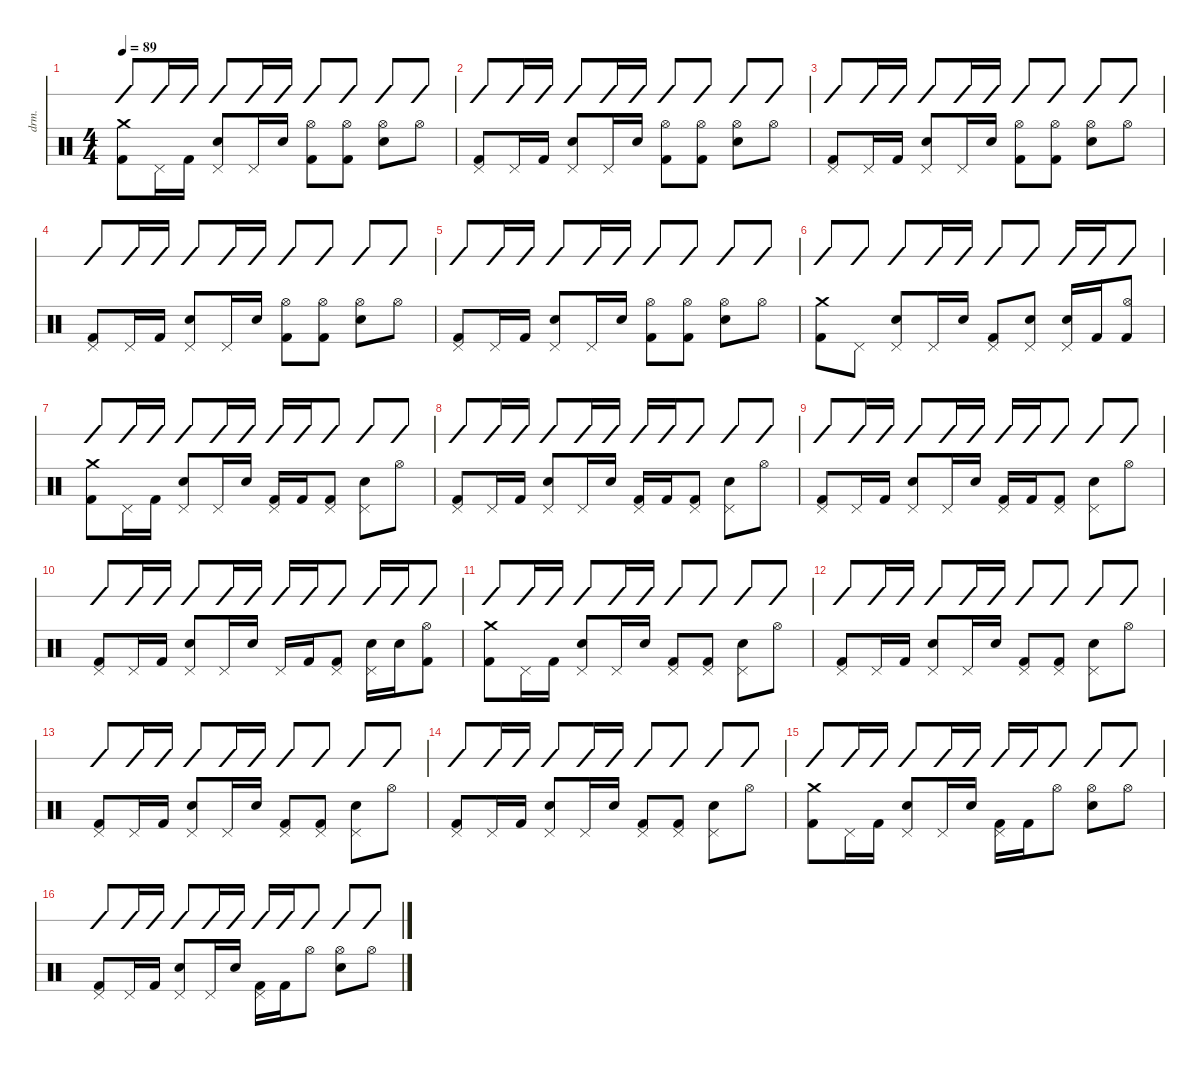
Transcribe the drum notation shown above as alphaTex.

\defaultSystemsLayout 4
\hideDynamics
\bracketExtendMode nobrackets
\otherSystemsTrackNameOrientation horizontal
\track ("Drumkit" "drm.") {instrument percussion}
\staff {score slash}
\articulation defaults
\ts (4 4)
\tempo 89
\clef neutral
\ks c
("Crash medium (hit)" "Kick (hit) 2").8{dy f beam Down} "Pedal Hi-Hat (hit)".16{beam Down} "Kick (hit) 2".16{beam Down} ("Pedal Hi-Hat (hit)" "Snare (hit) 2").8{beam Up} "Pedal Hi-Hat (hit)".16{beam Up} "Snare (hit) 2".16{beam Up} ("Hi-Hat (open)" "Kick (hit) 2").8{beam Down} ("Hi-Hat (open)" "Kick (hit) 2").8{beam Down} ("Hi-Hat (open)" "Snare (hit) 2").8{beam Down} "Hi-Hat (open)".8{beam Down} |
("Pedal Hi-Hat (hit)" "Kick (hit) 2").8{beam Up} "Pedal Hi-Hat (hit)".16{beam Up} "Kick (hit) 2".16{beam Up} ("Pedal Hi-Hat (hit)" "Snare (hit) 2").8{beam Up} "Pedal Hi-Hat (hit)".16{beam Up} "Snare (hit) 2".16{beam Up} ("Hi-Hat (open)" "Kick (hit) 2").8{beam Down} ("Hi-Hat (open)" "Kick (hit) 2").8{beam Down} ("Hi-Hat (open)" "Snare (hit) 2").8{beam Down} "Hi-Hat (open)".8{beam Down} |
("Pedal Hi-Hat (hit)" "Kick (hit) 2").8{beam Up} "Pedal Hi-Hat (hit)".16{beam Up} "Kick (hit) 2".16{beam Up} ("Pedal Hi-Hat (hit)" "Snare (hit) 2").8{beam Up} "Pedal Hi-Hat (hit)".16{beam Up} "Snare (hit) 2".16{beam Up} ("Hi-Hat (open)" "Kick (hit) 2").8{beam Down} ("Hi-Hat (open)" "Kick (hit) 2").8{beam Down} ("Hi-Hat (open)" "Snare (hit) 2").8{beam Down} "Hi-Hat (open)".8{beam Down} |
("Pedal Hi-Hat (hit)" "Kick (hit) 2").8{beam Up} "Pedal Hi-Hat (hit)".16{beam Up} "Kick (hit) 2".16{beam Up} ("Pedal Hi-Hat (hit)" "Snare (hit) 2").8{beam Up} "Pedal Hi-Hat (hit)".16{beam Up} "Snare (hit) 2".16{beam Up} ("Hi-Hat (open)" "Kick (hit) 2").8{beam Down} ("Hi-Hat (open)" "Kick (hit) 2").8{beam Down} ("Hi-Hat (open)" "Snare (hit) 2").8{beam Down} "Hi-Hat (open)".8{beam Down} |
("Pedal Hi-Hat (hit)" "Kick (hit) 2").8{beam Up} "Pedal Hi-Hat (hit)".16{beam Up} "Kick (hit) 2".16{beam Up} ("Pedal Hi-Hat (hit)" "Snare (hit) 2").8{beam Up} "Pedal Hi-Hat (hit)".16{beam Up} "Snare (hit) 2".16{beam Up} ("Hi-Hat (open)" "Kick (hit) 2").8{beam Down} ("Hi-Hat (open)" "Kick (hit) 2").8{beam Down} ("Hi-Hat (open)" "Snare (hit) 2").8{beam Down} "Hi-Hat (open)".8{beam Down} |
("Crash medium (hit)" "Kick (hit) 2").8{beam Down} "Pedal Hi-Hat (hit)".8{beam Down} ("Pedal Hi-Hat (hit)" "Snare (hit) 2").8{beam Up} "Pedal Hi-Hat (hit)".16{beam Up} "Snare (hit) 2".16{beam Up} ("Pedal Hi-Hat (hit)" "Kick (hit) 2").8{beam Up} ("Pedal Hi-Hat (hit)" "Snare (hit) 2").8{beam Up} ("Pedal Hi-Hat (hit)" "Snare (hit) 2").16{beam Up} "Kick (hit) 2".16{beam Up} ("Hi-Hat (open)" "Kick (hit) 2").8{beam Up} |
("Crash medium (hit)" "Kick (hit) 2").8{beam Down} "Pedal Hi-Hat (hit)".16{beam Down} "Kick (hit) 2".16{beam Down} ("Pedal Hi-Hat (hit)" "Snare (hit) 2").8{beam Up} "Pedal Hi-Hat (hit)".16{beam Up} "Snare (hit) 2".16{beam Up} ("Pedal Hi-Hat (hit)" "Kick (hit) 2").16{beam Up} "Kick (hit) 2".16{beam Up} ("Pedal Hi-Hat (hit)" "Kick (hit) 2").8{beam Up} ("Pedal Hi-Hat (hit)" "Snare (hit) 2").8{beam Down} "Hi-Hat (open)".8{beam Down} |
("Pedal Hi-Hat (hit)" "Kick (hit) 2").8{beam Up} "Pedal Hi-Hat (hit)".16{beam Up} "Kick (hit) 2".16{beam Up} ("Pedal Hi-Hat (hit)" "Snare (hit) 2").8{beam Up} "Pedal Hi-Hat (hit)".16{beam Up} "Snare (hit) 2".16{beam Up} ("Pedal Hi-Hat (hit)" "Kick (hit) 2").16{beam Up} "Kick (hit) 2".16{beam Up} ("Pedal Hi-Hat (hit)" "Kick (hit) 2").8{beam Up} ("Pedal Hi-Hat (hit)" "Snare (hit) 2").8{beam Down} "Hi-Hat (open)".8{beam Down} |
("Pedal Hi-Hat (hit)" "Kick (hit) 2").8{beam Up} "Pedal Hi-Hat (hit)".16{beam Up} "Kick (hit) 2".16{beam Up} ("Pedal Hi-Hat (hit)" "Snare (hit) 2").8{beam Up} "Pedal Hi-Hat (hit)".16{beam Up} "Snare (hit) 2".16{beam Up} ("Pedal Hi-Hat (hit)" "Kick (hit) 2").16{beam Up} "Kick (hit) 2".16{beam Up} ("Pedal Hi-Hat (hit)" "Kick (hit) 2").8{beam Up} ("Pedal Hi-Hat (hit)" "Snare (hit) 2").8{beam Down} "Hi-Hat (open)".8{beam Down} |
("Pedal Hi-Hat (hit)" "Kick (hit) 2").8{beam Up} "Pedal Hi-Hat (hit)".16{beam Up} "Kick (hit) 2".16{beam Up} ("Pedal Hi-Hat (hit)" "Snare (hit) 2").8{beam Up} "Pedal Hi-Hat (hit)".16{beam Up} "Snare (hit) 2".16{beam Up} "Pedal Hi-Hat (hit)".16{beam Up} "Kick (hit) 2".16{beam Up} ("Pedal Hi-Hat (hit)" "Kick (hit) 2").8{beam Up} ("Pedal Hi-Hat (hit)" "Snare (hit) 2").16{beam Down} "Snare (hit) 2".16{beam Down} ("Hi-Hat (open)" "Kick (hit) 2").8{beam Down} |
("Crash medium (hit)" "Kick (hit) 2").8{beam Down} "Pedal Hi-Hat (hit)".16{beam Down} "Kick (hit) 2".16{beam Down} ("Pedal Hi-Hat (hit)" "Snare (hit) 2").8{beam Up} "Pedal Hi-Hat (hit)".16{beam Up} "Snare (hit) 2".16{beam Up} ("Pedal Hi-Hat (hit)" "Kick (hit) 2").8{beam Up} ("Pedal Hi-Hat (hit)" "Kick (hit) 2").8{beam Up} ("Pedal Hi-Hat (hit)" "Snare (hit) 2").8{beam Down} "Hi-Hat (open)".8{beam Down} |
("Pedal Hi-Hat (hit)" "Kick (hit) 2").8{beam Up} "Pedal Hi-Hat (hit)".16{beam Up} "Kick (hit) 2".16{beam Up} ("Pedal Hi-Hat (hit)" "Snare (hit) 2").8{beam Up} "Pedal Hi-Hat (hit)".16{beam Up} "Snare (hit) 2".16{beam Up} ("Pedal Hi-Hat (hit)" "Kick (hit) 2").8{beam Up} ("Pedal Hi-Hat (hit)" "Kick (hit) 2").8{beam Up} ("Pedal Hi-Hat (hit)" "Snare (hit) 2").8{beam Down} "Hi-Hat (open)".8{beam Down} |
("Pedal Hi-Hat (hit)" "Kick (hit) 2").8{beam Up} "Pedal Hi-Hat (hit)".16{beam Up} "Kick (hit) 2".16{beam Up} ("Pedal Hi-Hat (hit)" "Snare (hit) 2").8{beam Up} "Pedal Hi-Hat (hit)".16{beam Up} "Snare (hit) 2".16{beam Up} ("Pedal Hi-Hat (hit)" "Kick (hit) 2").8{beam Up} ("Pedal Hi-Hat (hit)" "Kick (hit) 2").8{beam Up} ("Pedal Hi-Hat (hit)" "Snare (hit) 2").8{beam Down} "Hi-Hat (open)".8{beam Down} |
("Pedal Hi-Hat (hit)" "Kick (hit) 2").8{beam Up} "Pedal Hi-Hat (hit)".16{beam Up} "Kick (hit) 2".16{beam Up} ("Pedal Hi-Hat (hit)" "Snare (hit) 2").8{beam Up} "Pedal Hi-Hat (hit)".16{beam Up} "Snare (hit) 2".16{beam Up} ("Pedal Hi-Hat (hit)" "Kick (hit) 2").8{beam Up} ("Pedal Hi-Hat (hit)" "Kick (hit) 2").8{beam Up} ("Pedal Hi-Hat (hit)" "Snare (hit) 2").8{beam Down} "Hi-Hat (open)".8{beam Down} |
("Crash medium (hit)" "Kick (hit) 2").8{beam Down} "Pedal Hi-Hat (hit)".16{beam Down} "Kick (hit) 2".16{beam Down} ("Pedal Hi-Hat (hit)" "Snare (hit) 2").8{beam Up} "Pedal Hi-Hat (hit)".16{beam Up} "Snare (hit) 2".16{beam Up} ("Pedal Hi-Hat (hit)" "Kick (hit) 2").16{beam Down} "Kick (hit) 2".16{beam Down} "Hi-Hat (open)".8{beam Down} ("Hi-Hat (open)" "Snare (hit) 2").8{beam Down} "Hi-Hat (open)".8{beam Down} |
("Pedal Hi-Hat (hit)" "Kick (hit) 2").8{beam Up} "Pedal Hi-Hat (hit)".16{beam Up} "Kick (hit) 2".16{beam Up} ("Pedal Hi-Hat (hit)" "Snare (hit) 2").8{beam Up} "Pedal Hi-Hat (hit)".16{beam Up} "Snare (hit) 2".16{beam Up} ("Pedal Hi-Hat (hit)" "Kick (hit) 2").16{beam Down} "Kick (hit) 2".16{beam Down} "Hi-Hat (open)".8{beam Down} ("Hi-Hat (open)" "Snare (hit) 2").8{beam Down} "Hi-Hat (open)".8{beam Down}
